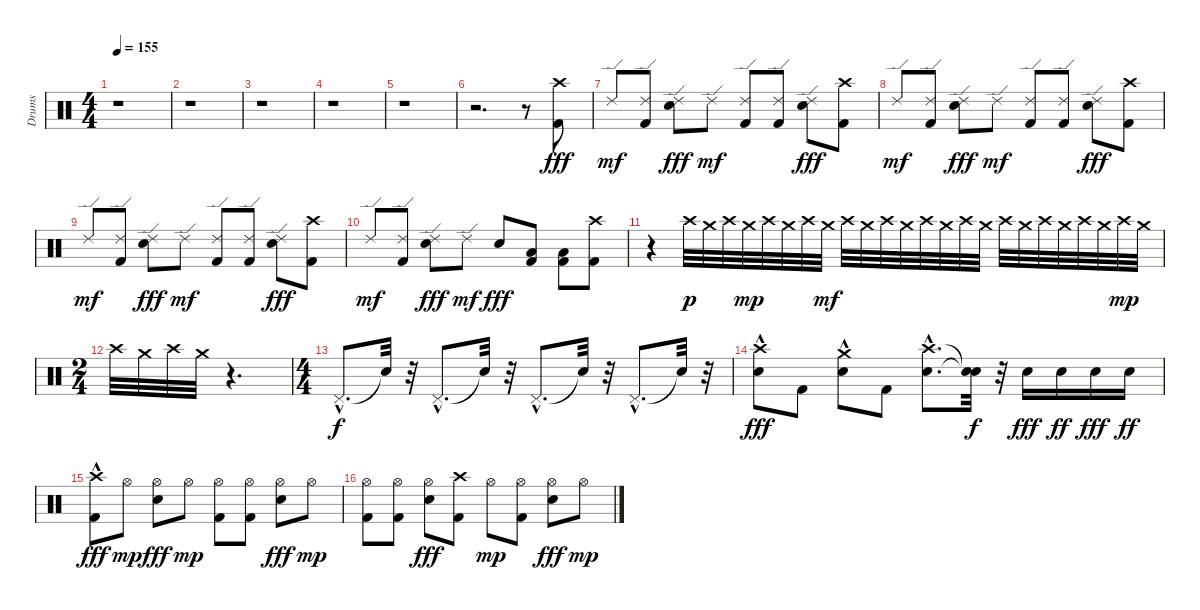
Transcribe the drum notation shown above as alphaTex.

\track ("Drums" "Drums") {instrument percussion}
\staff {score}
\articulation defaults
\ts (4 4)
\tempo 155
\clef neutral
\ks c
r.1{dy fff} |
r.1 |
r.1 |
r.1 |
r.1 |
r.2{d} r.8 ("Kick (hit) 2" "Crash high (hit)").8 |
"Ride (edge) 2".8{dy mf} ("Kick (hit) 2" "Ride (edge) 2").8 ("Snare (hit) 2" "Ride (edge) 2").8{dy fff} "Ride (edge) 2".8{dy mf} ("Kick (hit) 2" "Ride (edge) 2").8 ("Kick (hit) 2" "Ride (edge) 2").8 ("Snare (hit) 2" "Ride (edge) 2").8{dy fff} ("Kick (hit) 2" "Crash high (hit)").8 |
"Ride (edge) 2".8{dy mf} ("Kick (hit) 2" "Ride (edge) 2").8 ("Snare (hit) 2" "Ride (edge) 2").8{dy fff} "Ride (edge) 2".8{dy mf} ("Kick (hit) 2" "Ride (edge) 2").8 ("Kick (hit) 2" "Ride (edge) 2").8 ("Snare (hit) 2" "Ride (edge) 2").8{dy fff} ("Kick (hit) 2" "Crash high (hit)").8 |
"Ride (edge) 2".8{dy mf} ("Kick (hit) 2" "Ride (edge) 2").8 ("Snare (hit) 2" "Ride (edge) 2").8{dy fff} "Ride (edge) 2".8{dy mf} ("Kick (hit) 2" "Ride (edge) 2").8 ("Kick (hit) 2" "Ride (edge) 2").8 ("Snare (hit) 2" "Ride (edge) 2").8{dy fff} ("Kick (hit) 2" "Crash high (hit)").8 |
"Ride (edge) 2".8{dy mf} ("Kick (hit) 2" "Ride (edge) 2").8 ("Snare (hit) 2" "Ride (edge) 2").8{dy fff} "Ride (edge) 2".8{dy mf} "Snare (hit) 2".8{dy fff} ("Low Tom (hit)" "Kick (hit) 2").8 ("Low Tom (hit)" "Kick (hit) 2").8 ("Kick (hit) 2" "Crash high (hit)").8 |
r.4 "Crash high (hit)".32{dy p} "Crash medium (hit)".32 "Crash high (hit)".32 "Crash medium (hit)".32{dy mp} "Crash high (hit)".32 "Crash medium (hit)".32 "Crash high (hit)".32 "Crash medium (hit)".32{dy mf} "Crash high (hit)".32 "Crash medium (hit)".32 "Crash high (hit)".32 "Crash medium (hit)".32 "Crash high (hit)".32 "Crash medium (hit)".32 "Crash high (hit)".32 "Crash medium (hit)".32 "Crash high (hit)".32 "Crash medium (hit)".32 "Crash high (hit)".32 "Crash medium (hit)".32 "Crash high (hit)".32 "Crash medium (hit)".32 "Crash high (hit)".32{dy mp} "Crash medium (hit)".32 |
\ts (2 4)
"Crash high (hit)".32 "Crash medium (hit)".32 "Crash high (hit)".32 "Crash medium (hit)".32 r.4{d} |
\ts (4 4)
"Pedal Hi-Hat (hit)"{hac}.8{d dy f} "Snare (hit)"{t}.32 r.32 "Pedal Hi-Hat (hit)"{hac}.8{d} "Snare (hit)"{t}.32 r.32 "Pedal Hi-Hat (hit)"{hac}.8{d} "Snare (hit)"{t}.32 r.32 "Pedal Hi-Hat (hit)"{hac}.8{d} "Snare (hit)"{t}.32 r.32 |
("Snare (hit) 2"{hac} "Crash high (hit)"{hac}).8{dy fff} "Kick (hit) 2".8 ("Snare (hit) 2"{hac} "Crash medium (hit)"{hac}).8 "Kick (hit) 2".8 ("Snare (hit) 2"{hac} "Crash high (hit)"{hac}).8{d} ("Snare (hit)"{t} "Snare (hit)"{t}).32{dy f} r.32 "Snare (hit) 2".16{dy fff} "Snare (hit) 2".16{dy ff} "Snare (hit) 2".16{dy fff} "Snare (hit) 2".16{dy ff} |
("Kick (hit) 2"{hac} "Crash high (hit)").8{dy fff} "Hi-Hat (open)".8{dy mp} ("Snare (hit) 2" "Hi-Hat (open)").8{dy fff} "Hi-Hat (open)".8{dy mp} ("Kick (hit) 2" "Hi-Hat (open)").8 ("Kick (hit) 2" "Hi-Hat (open)").8 ("Snare (hit) 2" "Hi-Hat (open)").8{dy fff} "Hi-Hat (open)".8{dy mp} |
("Kick (hit) 2" "Hi-Hat (open)").8 ("Kick (hit) 2" "Hi-Hat (open)").8 ("Snare (hit) 2" "Hi-Hat (open)").8{dy fff} ("Crash high (hit)" "Kick (hit) 2").8 "Hi-Hat (open)".8{dy mp} ("Kick (hit) 2" "Hi-Hat (open)").8 ("Snare (hit) 2" "Hi-Hat (open)").8{dy fff} "Hi-Hat (open)".8{dy mp}
